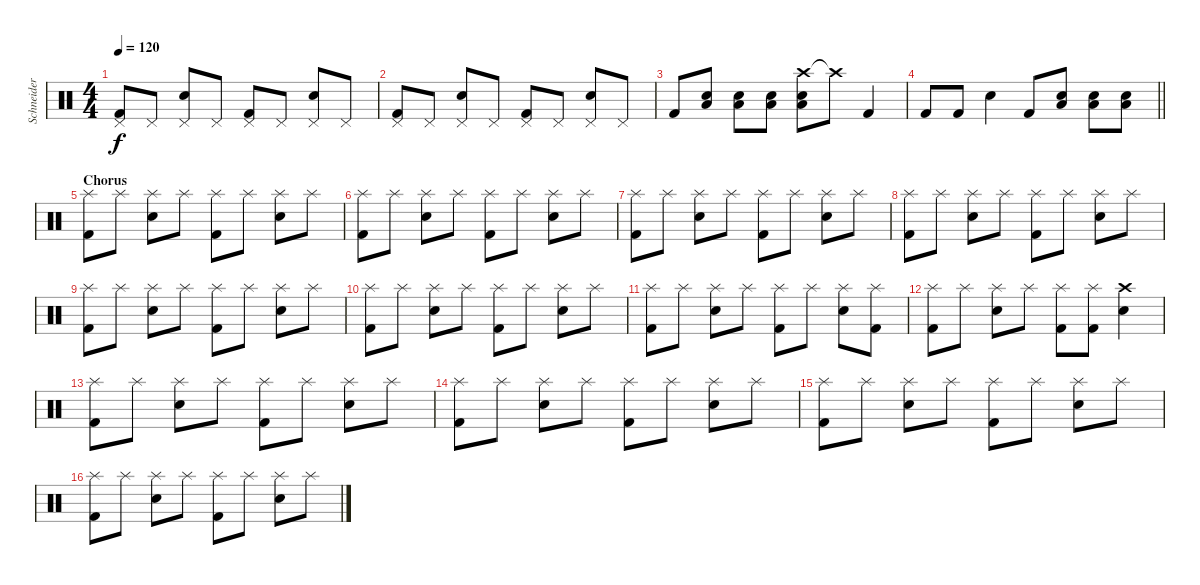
\track ("Schneider" "Schneider") {instrument percussion}
\staff {score}
\articulation defaults
\ts (4 4)
\tempo 120
\clef neutral
\ks c
("Pedal Hi-Hat (hit)" "Kick (hit) 2").8{dy f} "Pedal Hi-Hat (hit)".8 ("Pedal Hi-Hat (hit)" "Electric Snare (hit)").8 "Pedal Hi-Hat (hit)".8 ("Pedal Hi-Hat (hit)" "Kick (hit) 2").8 "Pedal Hi-Hat (hit)".8 ("Pedal Hi-Hat (hit)" "Electric Snare (hit)").8 "Pedal Hi-Hat (hit)".8 |
("Pedal Hi-Hat (hit)" "Kick (hit) 2").8 "Pedal Hi-Hat (hit)".8 ("Pedal Hi-Hat (hit)" "Electric Snare (hit)").8 "Pedal Hi-Hat (hit)".8 ("Pedal Hi-Hat (hit)" "Kick (hit) 2").8 "Pedal Hi-Hat (hit)".8 ("Pedal Hi-Hat (hit)" "Electric Snare (hit)").8 "Pedal Hi-Hat (hit)".8 |
"Kick (hit) 2".8 ("Low Floor Tom (hit)" "Electric Snare (hit)").8 ("Low Floor Tom (hit)" "Electric Snare (hit)").8 ("Low Floor Tom (hit)" "Electric Snare (hit)").8 ("Crash high (hit)" "Low Floor Tom (hit)" "Electric Snare (hit)").8 "Crash high (hit)"{t}.8 "Kick (hit) 2".4 |
\barLineRight lightlight "Kick (hit) 2".8 "Kick (hit) 2".8 "Electric Snare (hit)".4 "Kick (hit) 2".8
("Electric Snare (hit)" "Low Tom (hit)").8 ("Electric Snare (hit)" "Low Tom (hit)").8 ("Electric Snare (hit)" "Low Tom (hit)").8 |
\section ("" "Chorus")
("Splash (hit)" "Kick (hit) 2").8 "Splash (hit)".8 ("Splash (hit)" "Electric Snare (hit)").8 "Splash (hit)".8 ("Splash (hit)" "Kick (hit) 2").8 "Splash (hit)".8 ("Splash (hit)" "Electric Snare (hit)").8 "Splash (hit)".8 |
("Splash (hit)" "Kick (hit) 2").8 "Splash (hit)".8 ("Splash (hit)" "Electric Snare (hit)").8 "Splash (hit)".8 ("Splash (hit)" "Kick (hit) 2").8 "Splash (hit)".8 ("Splash (hit)" "Electric Snare (hit)").8 "Splash (hit)".8 |
("Splash (hit)" "Kick (hit) 2").8 "Splash (hit)".8 ("Splash (hit)" "Electric Snare (hit)").8 "Splash (hit)".8 ("Splash (hit)" "Kick (hit) 2").8 "Splash (hit)".8 ("Splash (hit)" "Electric Snare (hit)").8 "Splash (hit)".8 |
("Splash (hit)" "Kick (hit) 2").8 "Splash (hit)".8 ("Splash (hit)" "Electric Snare (hit)").8 "Splash (hit)".8 ("Splash (hit)" "Kick (hit) 2").8 "Splash (hit)".8 ("Splash (hit)" "Electric Snare (hit)").8 "Splash (hit)".8 |
("Splash (hit)" "Kick (hit) 2").8 "Splash (hit)".8 ("Splash (hit)" "Electric Snare (hit)").8 "Splash (hit)".8 ("Splash (hit)" "Kick (hit) 2").8 "Splash (hit)".8 ("Splash (hit)" "Electric Snare (hit)").8 "Splash (hit)".8 |
("Splash (hit)" "Kick (hit) 2").8 "Splash (hit)".8 ("Splash (hit)" "Electric Snare (hit)").8 "Splash (hit)".8 ("Splash (hit)" "Kick (hit) 2").8 "Splash (hit)".8 ("Splash (hit)" "Electric Snare (hit)").8 "Splash (hit)".8 |
("Splash (hit)" "Kick (hit) 2").8 "Splash (hit)".8 ("Splash (hit)" "Electric Snare (hit)").8 "Splash (hit)".8 ("Splash (hit)" "Kick (hit) 2").8 "Splash (hit)".8 ("Splash (hit)" "Electric Snare (hit)").8 ("Splash (hit)" "Kick (hit) 2").8 |
("Splash (hit)" "Kick (hit) 2").8 "Splash (hit)".8 ("Splash (hit)" "Electric Snare (hit)").8 "Splash (hit)".8 ("Splash (hit)" "Kick (hit) 2").8 ("Splash (hit)" "Kick (hit) 2").8 ("Crash high (hit)" "Electric Snare (hit)").4 |
("Splash (hit)" "Kick (hit) 2").8 "Splash (hit)".8 ("Splash (hit)" "Electric Snare (hit)").8 "Splash (hit)".8 ("Splash (hit)" "Kick (hit) 2").8 "Splash (hit)".8 ("Splash (hit)" "Electric Snare (hit)").8 "Splash (hit)".8 |
("Splash (hit)" "Kick (hit) 2").8 "Splash (hit)".8 ("Splash (hit)" "Electric Snare (hit)").8 "Splash (hit)".8 ("Splash (hit)" "Kick (hit) 2").8 "Splash (hit)".8 ("Splash (hit)" "Electric Snare (hit)").8 "Splash (hit)".8 |
("Splash (hit)" "Kick (hit) 2").8 "Splash (hit)".8 ("Splash (hit)" "Electric Snare (hit)").8 "Splash (hit)".8 ("Splash (hit)" "Kick (hit) 2").8 "Splash (hit)".8 ("Splash (hit)" "Electric Snare (hit)").8 "Splash (hit)".8 |
("Splash (hit)" "Kick (hit) 2").8 "Splash (hit)".8 ("Splash (hit)" "Electric Snare (hit)").8 "Splash (hit)".8 ("Splash (hit)" "Kick (hit) 2").8 "Splash (hit)".8 ("Splash (hit)" "Electric Snare (hit)").8 "Splash (hit)".8
